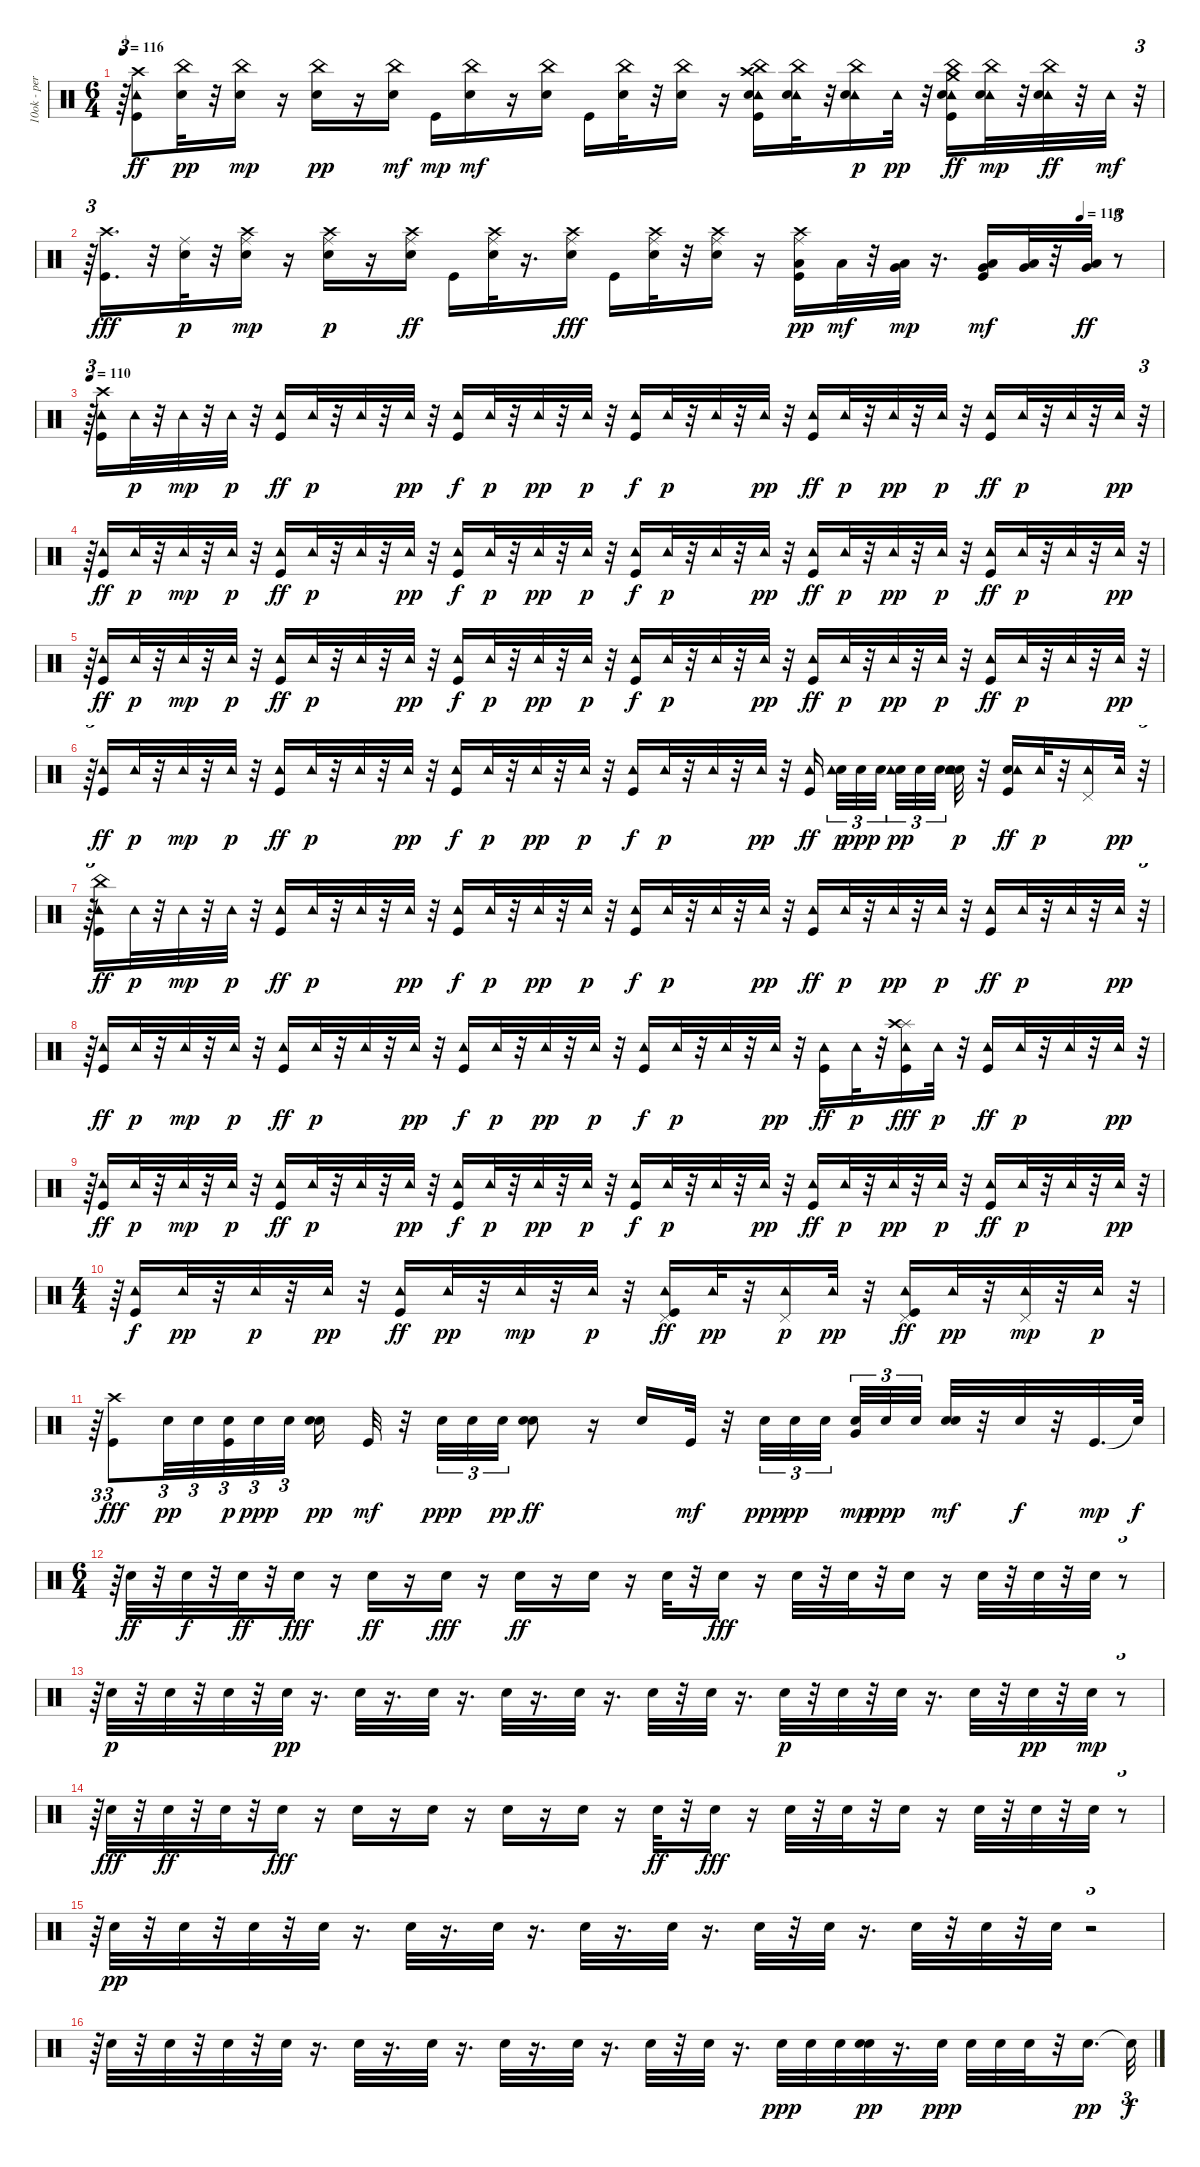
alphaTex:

\track ("10ok - percussioni" "10ok - per") {instrument percussion}
\staff {score}
\articulation defaults
\ts (6 4)
\tempo 116
\clef neutral
\ks c
r.64{tu (3 2) dy mp} ("Crash high (hit)" "Kick (hit)" "Tambourine (hit)").8{dy ff} ("China (hit)" "Snare (hit) 2").32{dy pp} r.32 ("China (hit)" "Snare (hit) 2").16{dy mp} r.16 ("China (hit)" "Snare (hit) 2").16{dy pp} r.16 ("China (hit)" "Snare (hit) 2").16{dy mf} "Kick (hit)".16{dy mp} ("China (hit)" "Snare (hit) 2").16{dy mf} r.16 ("China (hit)" "Snare (hit) 2").16 "Kick (hit)".16 ("China (hit)" "Snare (hit) 2").32 r.32 ("China (hit)" "Snare (hit) 2").16 r.16 ("Crash high (hit)" "China (hit)" "Kick (hit)" "Tambourine (hit)" "Snare (hit) 2").16 ("China (hit)" "Tambourine (hit)" "Snare (hit) 2").32 r.32 ("China (hit)" "Tambourine (hit)" "Snare (hit) 2").16{dy p} "Tambourine (hit)".32{dy pp} r.32 ("Crash medium (hit)" "China (hit)" "Kick (hit)" "Tambourine (hit)" "Snare (hit) 2").16{dy ff} ("China (hit)" "Tambourine (hit)" "Snare (hit) 2").32{dy mp} r.32 ("China (hit)" "Tambourine (hit)" "Snare (hit) 2").32{dy ff} r.32 "Tambourine (hit)".32{dy mf} r.32{tu (3 2)} |
\tempo (110 0.9236111111111112)
r.64{tu (3 2)} ("Kick (hit)" "Crash high (hit)").16{d dy fff} r.32 ("Ride (middle)" "Snare (hit) 2").32{dy p} r.32 ("Ride (middle)" "Crash high (hit)" "Snare (hit) 2").16{dy mp} r.16 ("Ride (middle)" "Crash high (hit)" "Snare (hit) 2").16{dy p} r.16 ("Crash high (hit)" "Ride (middle)" "Snare (hit) 2").16{dy ff} "Kick (hit)".16 ("Ride (middle)" "Crash high (hit)" "Snare (hit) 2").32 r.16{d} ("Crash high (hit)" "Ride (middle)" "Snare (hit) 2").16{dy fff} "Kick (hit)".16 ("Crash high (hit)" "Ride (middle)" "Snare (hit) 2").32 r.32 ("Ride (middle)" "Crash high (hit)" "Snare (hit) 2").16 r.16 ("Kick (hit)" "Crash high (hit)" "Ride (middle)" "Low Tom (hit)").16{dy pp} "Low Tom (hit)".32{dy mf} r.32 ("Very Low Tom (hit)" "Low Tom (hit)").32{dy mp} r.16{d} ("Kick (hit)" "Very Low Tom (hit)" "Low Floor Tom (hit)").16{dy mf} ("Very Low Tom (hit)" "Low Floor Tom (hit)").32 r.32 ("Very Low Tom (hit)" "Low Floor Tom (hit)").32{dy ff} r.8{tu (3 2)} |
\tempo 110
r.64{tu (3 2)} ("Tambourine (hit)" "Crash high (hit)" "Kick (hit)").16 "Tambourine (hit)".32{dy p} r.32 "Tambourine (hit)".32{dy mp} r.32 "Tambourine (hit)".32{dy p} r.32 ("Tambourine (hit)" "Kick (hit)").16{dy ff} "Tambourine (hit)".32{dy p} r.32 "Tambourine (hit)".32 r.32 "Tambourine (hit)".32{dy pp} r.32 ("Tambourine (hit)" "Kick (hit)").16{dy f} "Tambourine (hit)".32{dy p} r.32 "Tambourine (hit)".32{dy pp} r.32 "Tambourine (hit)".32{dy p} r.32 ("Tambourine (hit)" "Kick (hit)").16{dy f} "Tambourine (hit)".32{dy p} r.32 "Tambourine (hit)".32 r.32 "Tambourine (hit)".32{dy pp} r.32 ("Tambourine (hit)" "Kick (hit)").16{dy ff} "Tambourine (hit)".32{dy p} r.32 "Tambourine (hit)".32{dy pp} r.32 "Tambourine (hit)".32{dy p} r.32 ("Tambourine (hit)" "Kick (hit)").16{dy ff} "Tambourine (hit)".32{dy p} r.32 "Tambourine (hit)".32 r.32 "Tambourine (hit)".32{dy pp} r.32{tu (3 2)} |
r.64{tu (3 2)} ("Tambourine (hit)" "Kick (hit)").16{dy ff} "Tambourine (hit)".32{dy p} r.32 "Tambourine (hit)".32{dy mp} r.32 "Tambourine (hit)".32{dy p} r.32 ("Tambourine (hit)" "Kick (hit)").16{dy ff} "Tambourine (hit)".32{dy p} r.32 "Tambourine (hit)".32 r.32 "Tambourine (hit)".32{dy pp} r.32 ("Tambourine (hit)" "Kick (hit)").16{dy f} "Tambourine (hit)".32{dy p} r.32 "Tambourine (hit)".32{dy pp} r.32 "Tambourine (hit)".32{dy p} r.32 ("Tambourine (hit)" "Kick (hit)").16{dy f} "Tambourine (hit)".32{dy p} r.32 "Tambourine (hit)".32 r.32 "Tambourine (hit)".32{dy pp} r.32 ("Tambourine (hit)" "Kick (hit)").16{dy ff} "Tambourine (hit)".32{dy p} r.32 "Tambourine (hit)".32{dy pp} r.32 "Tambourine (hit)".32{dy p} r.32 ("Tambourine (hit)" "Kick (hit)").16{dy ff} "Tambourine (hit)".32{dy p} r.32 "Tambourine (hit)".32 r.32 "Tambourine (hit)".32{dy pp} r.32{tu (3 2)} |
r.64{tu (3 2)} ("Tambourine (hit)" "Kick (hit)").16{dy ff} "Tambourine (hit)".32{dy p} r.32 "Tambourine (hit)".32{dy mp} r.32 "Tambourine (hit)".32{dy p} r.32 ("Tambourine (hit)" "Kick (hit)").16{dy ff} "Tambourine (hit)".32{dy p} r.32 "Tambourine (hit)".32 r.32 "Tambourine (hit)".32{dy pp} r.32 ("Tambourine (hit)" "Kick (hit)").16{dy f} "Tambourine (hit)".32{dy p} r.32 "Tambourine (hit)".32{dy pp} r.32 "Tambourine (hit)".32{dy p} r.32 ("Tambourine (hit)" "Kick (hit)").16{dy f} "Tambourine (hit)".32{dy p} r.32 "Tambourine (hit)".32 r.32 "Tambourine (hit)".32{dy pp} r.32 ("Tambourine (hit)" "Kick (hit)").16{dy ff} "Tambourine (hit)".32{dy p} r.32 "Tambourine (hit)".32{dy pp} r.32 "Tambourine (hit)".32{dy p} r.32 ("Tambourine (hit)" "Kick (hit)").16{dy ff} "Tambourine (hit)".32{dy p} r.32 "Tambourine (hit)".32 r.32 "Tambourine (hit)".32{dy pp} r.32{tu (3 2)} |
r.64{tu (3 2)} ("Tambourine (hit)" "Kick (hit)").16{dy ff} "Tambourine (hit)".32{dy p} r.32 "Tambourine (hit)".32{dy mp} r.32 "Tambourine (hit)".32{dy p} r.32 ("Tambourine (hit)" "Kick (hit)").16{dy ff} "Tambourine (hit)".32{dy p} r.32 "Tambourine (hit)".32 r.32 "Tambourine (hit)".32{dy pp} r.32 ("Tambourine (hit)" "Kick (hit)").16{dy f} "Tambourine (hit)".32{dy p} r.32 "Tambourine (hit)".32{dy pp} r.32 "Tambourine (hit)".32{dy p} r.32 ("Tambourine (hit)" "Kick (hit)").16{dy f} "Tambourine (hit)".32{dy p} r.32 "Tambourine (hit)".32 r.32 "Tambourine (hit)".32{dy pp} r.32 ("Tambourine (hit)" "Kick (hit)").16{dy ff beam splitsecondary} ("Snare (hit) 2" "Tambourine (hit)").32{tu (3 2) dy p} "Snare (hit) 2".32{tu (3 2) dy ppp} "Snare (hit) 2".32{tu (3 2) beam splitsecondary} ("Snare (hit) 2" "Tambourine (hit)").32{tu (3 2) dy pp} "Snare (hit) 2".32{tu (3 2)} "Snare (hit) 2".32{tu (3 2) beam splitsecondary} ("Snare (hit) 2" "Tambourine (hit)" "Snare (hit) 2").32{dy p} r.32 ("Snare (hit) 2" "Tambourine (hit)" "Kick (hit)").16{dy ff} "Tambourine (hit)".32{dy p} r.32 ("Tambourine (hit)" "Pedal Hi-Hat (hit)").16 "Tambourine (hit)".32{dy pp} r.32{tu (3 2)} |
r.64{tu (3 2)} ("China (hit)" "Tambourine (hit)" "Kick (hit)").16{dy ff} "Tambourine (hit)".32{dy p} r.32 "Tambourine (hit)".32{dy mp} r.32 "Tambourine (hit)".32{dy p} r.32 ("Tambourine (hit)" "Kick (hit)").16{dy ff} "Tambourine (hit)".32{dy p} r.32 "Tambourine (hit)".32 r.32 "Tambourine (hit)".32{dy pp} r.32 ("Tambourine (hit)" "Kick (hit)").16{dy f} "Tambourine (hit)".32{dy p} r.32 "Tambourine (hit)".32{dy pp} r.32 "Tambourine (hit)".32{dy p} r.32 ("Tambourine (hit)" "Kick (hit)").16{dy f} "Tambourine (hit)".32{dy p} r.32 "Tambourine (hit)".32 r.32 "Tambourine (hit)".32{dy pp} r.32 ("Tambourine (hit)" "Kick (hit)").16{dy ff} "Tambourine (hit)".32{dy p} r.32 "Tambourine (hit)".32{dy pp} r.32 "Tambourine (hit)".32{dy p} r.32 ("Tambourine (hit)" "Kick (hit)").16{dy ff} "Tambourine (hit)".32{dy p} r.32 "Tambourine (hit)".32 r.32 "Tambourine (hit)".32{dy pp} r.32{tu (3 2)} |
r.64{tu (3 2)} ("Tambourine (hit)" "Kick (hit)").16{dy ff} "Tambourine (hit)".32{dy p} r.32 "Tambourine (hit)".32{dy mp} r.32 "Tambourine (hit)".32{dy p} r.32 ("Tambourine (hit)" "Kick (hit)").16{dy ff} "Tambourine (hit)".32{dy p} r.32 "Tambourine (hit)".32 r.32 "Tambourine (hit)".32{dy pp} r.32 ("Tambourine (hit)" "Kick (hit)").16{dy f} "Tambourine (hit)".32{dy p} r.32 "Tambourine (hit)".32{dy pp} r.32 "Tambourine (hit)".32{dy p} r.32 ("Tambourine (hit)" "Kick (hit)").16{dy f} "Tambourine (hit)".32{dy p} r.32 "Tambourine (hit)".32 r.32 "Tambourine (hit)".32{dy pp} r.32 ("Tambourine (hit)" "Kick (hit)").16{dy ff} "Tambourine (hit)".32{dy p} r.32 ("Tambourine (hit)" "Kick (hit)" "Splash (hit)" "Crash high (hit)").16{dy fff} "Tambourine (hit)".32{dy p} r.32 ("Tambourine (hit)" "Kick (hit)").16{dy ff} "Tambourine (hit)".32{dy p} r.32 "Tambourine (hit)".32 r.32 "Tambourine (hit)".32{dy pp} r.32{tu (3 2)} |
r.64{tu (3 2)} ("Tambourine (hit)" "Kick (hit)").16{dy ff} "Tambourine (hit)".32{dy p} r.32 "Tambourine (hit)".32{dy mp} r.32 "Tambourine (hit)".32{dy p} r.32 ("Tambourine (hit)" "Kick (hit)").16{dy ff} "Tambourine (hit)".32{dy p} r.32 "Tambourine (hit)".32 r.32 "Tambourine (hit)".32{dy pp} r.32 ("Tambourine (hit)" "Kick (hit)").16{dy f} "Tambourine (hit)".32{dy p} r.32 "Tambourine (hit)".32{dy pp} r.32 "Tambourine (hit)".32{dy p} r.32 ("Tambourine (hit)" "Kick (hit)").16{dy f} "Tambourine (hit)".32{dy p} r.32 "Tambourine (hit)".32 r.32 "Tambourine (hit)".32{dy pp} r.32 ("Tambourine (hit)" "Kick (hit)").16{dy ff} "Tambourine (hit)".32{dy p} r.32 "Tambourine (hit)".32{dy pp} r.32 "Tambourine (hit)".32{dy p} r.32 ("Tambourine (hit)" "Kick (hit)").16{dy ff} "Tambourine (hit)".32{dy p} r.32 "Tambourine (hit)".32 r.32 "Tambourine (hit)".32{dy pp} r.32{tu (3 2)} |
\ts (4 4)
r.64{tu (3 2)} ("Tambourine (hit)" "Kick (hit)").16{dy f} "Tambourine (hit)".32{dy pp} r.32 "Tambourine (hit)".32{dy p} r.32 "Tambourine (hit)".32{dy pp} r.32 ("Tambourine (hit)" "Kick (hit)").16{dy ff} "Tambourine (hit)".32{dy pp} r.32 "Tambourine (hit)".32{dy mp} r.32 "Tambourine (hit)".32{dy p} r.32 ("Pedal Hi-Hat (hit)" "Tambourine (hit)" "Kick (hit)").16{dy ff} "Tambourine (hit)".32{dy pp} r.32 ("Pedal Hi-Hat (hit)" "Tambourine (hit)").16{dy p} "Tambourine (hit)".32{dy pp} r.32 ("Pedal Hi-Hat (hit)" "Tambourine (hit)" "Kick (hit)").16{dy ff} "Tambourine (hit)".32{dy pp} r.32 ("Pedal Hi-Hat (hit)" "Tambourine (hit)").32{dy mp} r.32 "Tambourine (hit)".32{dy p} r.32{tu (3 2)} |
r.64{tu (3 2)} ("Kick (hit)" "Crash high (hit)").8{tu (3 2) dy fff} "Snare (hit) 2".32{tu (3 2) dy pp} "Snare (hit) 2".32{tu (3 2)} ("Snare (hit) 2" "Kick (hit)").32{tu (3 2) dy p} "Snare (hit) 2".32{tu (3 2) dy ppp} "Snare (hit) 2".32{tu (3 2) beam splitsecondary} ("Snare (hit) 2" "Snare (hit) 2").16{dy pp} "Kick (hit)".32{dy mf} r.32 "Snare (hit) 2".32{tu (3 2) dy ppp} "Snare (hit) 2".32{tu (3 2)} "Snare (hit) 2".32{tu (3 2) dy pp} ("Snare (hit) 2" "Snare (hit) 2").8{dy ff} r.16 "Snare (hit) 2".16 "Kick (hit)".32{dy mf} r.32 "Snare (hit) 2".32{tu (3 2) dy ppp} "Snare (hit) 2".32{tu (3 2) dy pp} "Snare (hit) 2".32{tu (3 2)} ("Snare (hit) 2" "Very Low Tom (hit)").32{tu (3 2) dy mp} "Snare (hit) 2".32{tu (3 2) dy ppp} "Snare (hit) 2".32{tu (3 2) beam splitsecondary} ("Snare (hit) 2" "Snare (hit) 2").32{dy mf} r.32 "Snare (hit) 2".32{dy f} r.32 "Kick (hit)".32{d dy mp} "Snare (hit)"{t}.64{dy f} |
\ts (6 4)
r.64{tu (3 2)} "Snare (hit) 2".32{dy ff} r.32 "Snare (hit) 2".32{dy f} r.32 "Snare (hit) 2".32{dy ff} r.32 "Snare (hit) 2".16{dy fff} r.16 "Snare (hit) 2".16{dy ff} r.16 "Snare (hit) 2".16{dy fff} r.16 "Snare (hit) 2".16{dy ff} r.16 "Snare (hit) 2".16 r.16 "Snare (hit) 2".32 r.32 "Snare (hit) 2".16{dy fff} r.16 "Snare (hit) 2".32 r.32 "Snare (hit) 2".32 r.32 "Snare (hit) 2".16 r.16 "Snare (hit) 2".32 r.32 "Snare (hit) 2".32 r.32 "Snare (hit) 2".32 r.8{tu (3 2)} |
r.64{tu (3 2)} "Snare (hit) 2".32{dy p} r.32 "Snare (hit) 2".32 r.32 "Snare (hit) 2".32 r.32 "Snare (hit) 2".32{dy pp} r.16{d} "Snare (hit) 2".32 r.16{d} "Snare (hit) 2".32 r.16{d} "Snare (hit) 2".32 r.16{d} "Snare (hit) 2".32 r.16{d} "Snare (hit) 2".32 r.32 "Snare (hit) 2".32 r.16{d} "Snare (hit) 2".32{dy p} r.32 "Snare (hit) 2".32 r.32 "Snare (hit) 2".32 r.16{d} "Snare (hit) 2".32 r.32 "Snare (hit) 2".32{dy pp} r.32 "Snare (hit) 2".32{dy mp} r.8{tu (3 2)} |
r.64{tu (3 2)} "Snare (hit) 2".32{dy fff} r.32 "Snare (hit) 2".32{dy ff} r.32 "Snare (hit) 2".32 r.32 "Snare (hit) 2".16{dy fff} r.16 "Snare (hit) 2".16 r.16 "Snare (hit) 2".16 r.16 "Snare (hit) 2".16 r.16 "Snare (hit) 2".16 r.16 "Snare (hit) 2".32{dy ff} r.32 "Snare (hit) 2".16{dy fff} r.16 "Snare (hit) 2".32 r.32 "Snare (hit) 2".32 r.32 "Snare (hit) 2".16 r.16 "Snare (hit) 2".32 r.32 "Snare (hit) 2".32 r.32 "Snare (hit) 2".32 r.8{tu (3 2)} |
r.64{tu (3 2)} "Snare (hit) 2".32{dy pp} r.32 "Snare (hit) 2".32 r.32 "Snare (hit) 2".32 r.32 "Snare (hit) 2".32 r.16{d} "Snare (hit) 2".32 r.16{d} "Snare (hit) 2".32 r.16{d} "Snare (hit) 2".32 r.16{d} "Snare (hit) 2".32 r.16{d} "Snare (hit) 2".32 r.32 "Snare (hit) 2".32 r.16{d} "Snare (hit) 2".32 r.32 "Snare (hit) 2".32 r.32 "Snare (hit) 2".32 r.2{tu (3 2)} |
r.64{tu (3 2)} "Snare (hit) 2".32 r.32 "Snare (hit) 2".32 r.32 "Snare (hit) 2".32 r.32 "Snare (hit) 2".32 r.16{d} "Snare (hit) 2".32 r.16{d} "Snare (hit) 2".32 r.16{d} "Snare (hit) 2".32 r.16{d} "Snare (hit) 2".32 r.16{d} "Snare (hit) 2".32 r.32 "Snare (hit) 2".32 r.16{d} "Snare (hit) 2".32{dy ppp} "Snare (hit) 2".32 "Snare (hit) 2".32 ("Snare (hit) 2" "Snare (hit) 2").32{dy pp} r.16{d} "Snare (hit) 2".32{dy ppp} "Snare (hit) 2".32 "Snare (hit) 2".32 "Snare (hit) 2".32 r.32 "Snare (hit) 2".16{d dy pp} "Snare (hit)"{t}.32{tu (3 2) dy f}
